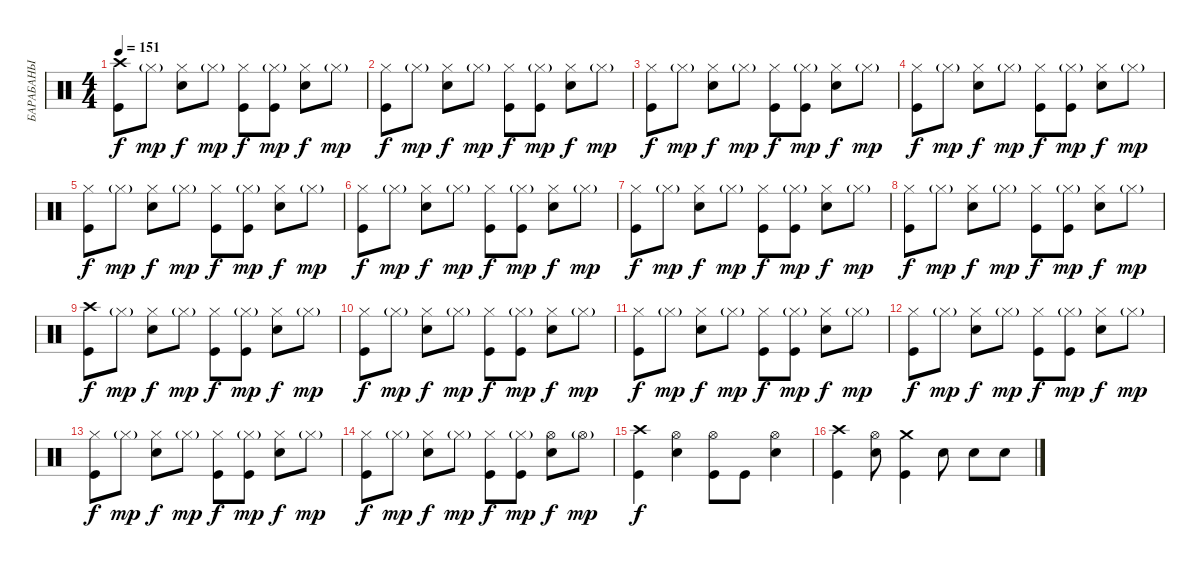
\track ("БАРАБАНЫ" "БАРАБАНЫ") {instrument percussion}
\staff {score}
\articulation defaults
\ts (4 4)
\tempo 151
\clef neutral
\ks c
("Crash high (hit)" "Kick (hit)").8{dy f} "Hi-Hat (closed)"{g}.8{dy mp} ("Hi-Hat (closed)" "Electric Snare (hit)").8{dy f} "Hi-Hat (closed)"{g}.8{dy mp} ("Hi-Hat (closed)" "Kick (hit)").8{dy f} ("Hi-Hat (closed)"{g} "Kick (hit)").8{dy mp} ("Hi-Hat (closed)" "Electric Snare (hit)").8{dy f} "Hi-Hat (closed)"{g}.8{dy mp} |
("Hi-Hat (closed)" "Kick (hit)").8{dy f} "Hi-Hat (closed)"{g}.8{dy mp} ("Hi-Hat (closed)" "Electric Snare (hit)").8{dy f} "Hi-Hat (closed)"{g}.8{dy mp} ("Hi-Hat (closed)" "Kick (hit)").8{dy f} ("Hi-Hat (closed)"{g} "Kick (hit)").8{dy mp} ("Hi-Hat (closed)" "Electric Snare (hit)").8{dy f} "Hi-Hat (closed)"{g}.8{dy mp} |
("Hi-Hat (closed)" "Kick (hit)").8{dy f} "Hi-Hat (closed)"{g}.8{dy mp} ("Hi-Hat (closed)" "Electric Snare (hit)").8{dy f} "Hi-Hat (closed)"{g}.8{dy mp} ("Hi-Hat (closed)" "Kick (hit)").8{dy f} ("Hi-Hat (closed)"{g} "Kick (hit)").8{dy mp} ("Hi-Hat (closed)" "Electric Snare (hit)").8{dy f} "Hi-Hat (closed)"{g}.8{dy mp} |
("Hi-Hat (closed)" "Kick (hit)").8{dy f} "Hi-Hat (closed)"{g}.8{dy mp} ("Hi-Hat (closed)" "Electric Snare (hit)").8{dy f} "Hi-Hat (closed)"{g}.8{dy mp} ("Hi-Hat (closed)" "Kick (hit)").8{dy f} ("Hi-Hat (closed)"{g} "Kick (hit)").8{dy mp} ("Hi-Hat (closed)" "Electric Snare (hit)").8{dy f} "Hi-Hat (closed)"{g}.8{dy mp} |
("Hi-Hat (closed)" "Kick (hit)").8{dy f} "Hi-Hat (closed)"{g}.8{dy mp} ("Hi-Hat (closed)" "Electric Snare (hit)").8{dy f} "Hi-Hat (closed)"{g}.8{dy mp} ("Hi-Hat (closed)" "Kick (hit)").8{dy f} ("Hi-Hat (closed)"{g} "Kick (hit)").8{dy mp} ("Hi-Hat (closed)" "Electric Snare (hit)").8{dy f} "Hi-Hat (closed)"{g}.8{dy mp} |
("Hi-Hat (closed)" "Kick (hit)").8{dy f} "Hi-Hat (closed)"{g}.8{dy mp} ("Hi-Hat (closed)" "Electric Snare (hit)").8{dy f} "Hi-Hat (closed)"{g}.8{dy mp} ("Hi-Hat (closed)" "Kick (hit)").8{dy f} ("Hi-Hat (closed)"{g} "Kick (hit)").8{dy mp} ("Hi-Hat (closed)" "Electric Snare (hit)").8{dy f} "Hi-Hat (closed)"{g}.8{dy mp} |
("Hi-Hat (closed)" "Kick (hit)").8{dy f} "Hi-Hat (closed)"{g}.8{dy mp} ("Hi-Hat (closed)" "Electric Snare (hit)").8{dy f} "Hi-Hat (closed)"{g}.8{dy mp} ("Hi-Hat (closed)" "Kick (hit)").8{dy f} ("Hi-Hat (closed)"{g} "Kick (hit)").8{dy mp} ("Hi-Hat (closed)" "Electric Snare (hit)").8{dy f} "Hi-Hat (closed)"{g}.8{dy mp} |
("Hi-Hat (closed)" "Kick (hit)").8{dy f} "Hi-Hat (closed)"{g}.8{dy mp} ("Hi-Hat (closed)" "Electric Snare (hit)").8{dy f} "Hi-Hat (closed)"{g}.8{dy mp} ("Hi-Hat (closed)" "Kick (hit)").8{dy f} ("Hi-Hat (closed)"{g} "Kick (hit)").8{dy mp} ("Hi-Hat (closed)" "Electric Snare (hit)").8{dy f} "Hi-Hat (closed)"{g}.8{dy mp} |
("Crash high (hit)" "Kick (hit)").8{dy f} "Hi-Hat (closed)"{g}.8{dy mp} ("Hi-Hat (closed)" "Electric Snare (hit)").8{dy f} "Hi-Hat (closed)"{g}.8{dy mp} ("Hi-Hat (closed)" "Kick (hit)").8{dy f} ("Hi-Hat (closed)"{g} "Kick (hit)").8{dy mp} ("Hi-Hat (closed)" "Electric Snare (hit)").8{dy f} "Hi-Hat (closed)"{g}.8{dy mp} |
("Hi-Hat (closed)" "Kick (hit)").8{dy f} "Hi-Hat (closed)"{g}.8{dy mp} ("Hi-Hat (closed)" "Electric Snare (hit)").8{dy f} "Hi-Hat (closed)"{g}.8{dy mp} ("Hi-Hat (closed)" "Kick (hit)").8{dy f} ("Hi-Hat (closed)"{g} "Kick (hit)").8{dy mp} ("Hi-Hat (closed)" "Electric Snare (hit)").8{dy f} "Hi-Hat (closed)"{g}.8{dy mp} |
("Hi-Hat (closed)" "Kick (hit)").8{dy f} "Hi-Hat (closed)"{g}.8{dy mp} ("Hi-Hat (closed)" "Electric Snare (hit)").8{dy f} "Hi-Hat (closed)"{g}.8{dy mp} ("Hi-Hat (closed)" "Kick (hit)").8{dy f} ("Hi-Hat (closed)"{g} "Kick (hit)").8{dy mp} ("Hi-Hat (closed)" "Electric Snare (hit)").8{dy f} "Hi-Hat (closed)"{g}.8{dy mp} |
("Hi-Hat (closed)" "Kick (hit)").8{dy f} "Hi-Hat (closed)"{g}.8{dy mp} ("Hi-Hat (closed)" "Electric Snare (hit)").8{dy f} "Hi-Hat (closed)"{g}.8{dy mp} ("Hi-Hat (closed)" "Kick (hit)").8{dy f} ("Hi-Hat (closed)"{g} "Kick (hit)").8{dy mp} ("Hi-Hat (closed)" "Electric Snare (hit)").8{dy f} "Hi-Hat (closed)"{g}.8{dy mp} |
("Hi-Hat (closed)" "Kick (hit)").8{dy f} "Hi-Hat (closed)"{g}.8{dy mp} ("Hi-Hat (closed)" "Electric Snare (hit)").8{dy f} "Hi-Hat (closed)"{g}.8{dy mp} ("Hi-Hat (closed)" "Kick (hit)").8{dy f} ("Hi-Hat (closed)"{g} "Kick (hit)").8{dy mp} ("Hi-Hat (closed)" "Electric Snare (hit)").8{dy f} "Hi-Hat (closed)"{g}.8{dy mp} |
("Hi-Hat (closed)" "Kick (hit)").8{dy f} "Hi-Hat (closed)"{g}.8{dy mp} ("Hi-Hat (closed)" "Electric Snare (hit)").8{dy f} "Hi-Hat (closed)"{g}.8{dy mp} ("Hi-Hat (closed)" "Kick (hit)").8{dy f} ("Hi-Hat (closed)"{g} "Kick (hit)").8{dy mp} ("Hi-Hat (open)" "Electric Snare (hit)").8{dy f} "Hi-Hat (open)"{g}.8{dy mp} |
("Crash high (hit)" "Kick (hit)").4{dy f} ("Hi-Hat (open)" "Electric Snare (hit)").4 ("Hi-Hat (open)" "Kick (hit)").8 "Kick (hit)".8 ("Hi-Hat (open)" "Electric Snare (hit)").4 |
("Crash high (hit)" "Kick (hit)").4 ("Hi-Hat (open)" "Electric Snare (hit)").8 ("Crash medium (hit)" "Kick (hit)").4 "Electric Snare (hit)".8 "Electric Snare (hit)".8 "Electric Snare (hit)".8
